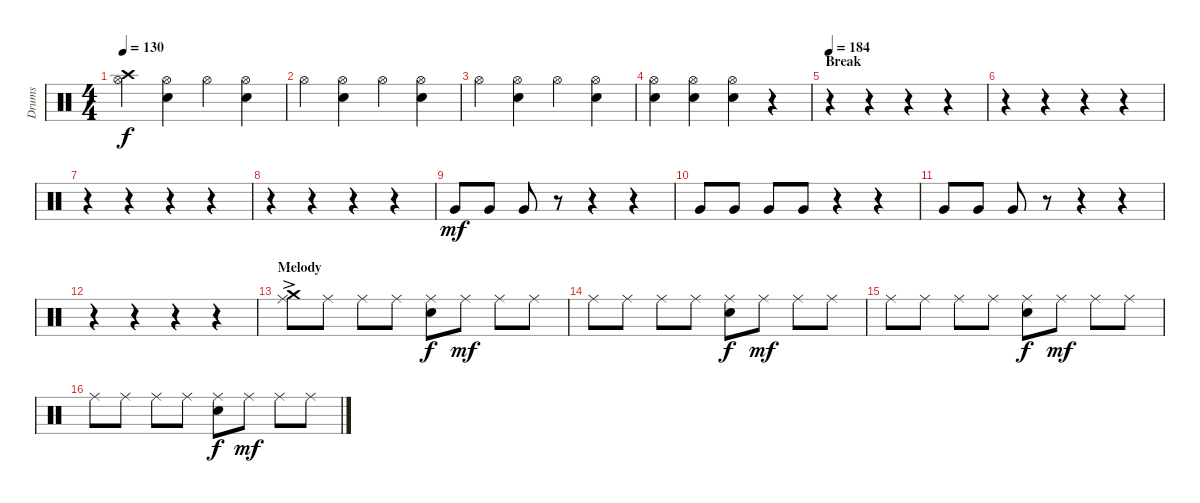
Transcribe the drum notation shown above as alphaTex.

\track ("Drums" "Drums") {instrument percussion}
\staff {score}
\articulation defaults
\ts (4 4)
\tempo 130
\clef neutral
\ks c
("Crash high (hit)" "Hi-Hat (open)").4{dy f} ("Hi-Hat (open)" "Electric Snare (hit)").4 "Hi-Hat (open)".4 ("Hi-Hat (open)" "Electric Snare (hit)").4 |
"Hi-Hat (open)".4 ("Hi-Hat (open)" "Electric Snare (hit)").4 "Hi-Hat (open)".4 ("Hi-Hat (open)" "Electric Snare (hit)").4 |
"Hi-Hat (open)".4 ("Hi-Hat (open)" "Electric Snare (hit)").4 "Hi-Hat (open)".4 ("Hi-Hat (open)" "Electric Snare (hit)").4 |
("Hi-Hat (open)" "Electric Snare (hit)").4 ("Hi-Hat (open)" "Electric Snare (hit)").4 ("Hi-Hat (open)" "Electric Snare (hit)").4 r.4 |
\section ("" "Break")
\tempo 184
r.4 r.4 r.4 r.4 |
r.4 r.4 r.4 r.4 |
r.4 r.4 r.4 r.4 |
r.4 r.4 r.4 r.4 |
"Very Low Tom (hit)".8{dy mf} "Very Low Tom (hit)".8 "Very Low Tom (hit)".8 r.8 r.4 r.4 |
"Very Low Tom (hit)".8 "Very Low Tom (hit)".8 "Very Low Tom (hit)".8 "Very Low Tom (hit)".8 r.4 r.4 |
"Very Low Tom (hit)".8 "Very Low Tom (hit)".8 "Very Low Tom (hit)".8 r.8 r.4 r.4 |
r.4 r.4 r.4 r.4 |
\section ("" "Melody")
("Crash medium (hit)"{ac} "Ride (middle)").8 "Ride (middle)".8 "Ride (middle)".8 "Ride (middle)".8 ("Ride (middle)" "Electric Snare (hit)").8{dy f} "Ride (middle)".8{dy mf} "Ride (middle)".8 "Ride (middle)".8 |
"Ride (middle)".8 "Ride (middle)".8 "Ride (middle)".8 "Ride (middle)".8 ("Ride (middle)" "Electric Snare (hit)").8{dy f} "Ride (middle)".8{dy mf} "Ride (middle)".8 "Ride (middle)".8 |
"Ride (middle)".8 "Ride (middle)".8 "Ride (middle)".8 "Ride (middle)".8 ("Ride (middle)" "Electric Snare (hit)").8{dy f} "Ride (middle)".8{dy mf} "Ride (middle)".8 "Ride (middle)".8 |
"Ride (middle)".8 "Ride (middle)".8 "Ride (middle)".8 "Ride (middle)".8 ("Ride (middle)" "Electric Snare (hit)").8{dy f} "Ride (middle)".8{dy mf} "Ride (middle)".8 "Ride (middle)".8
